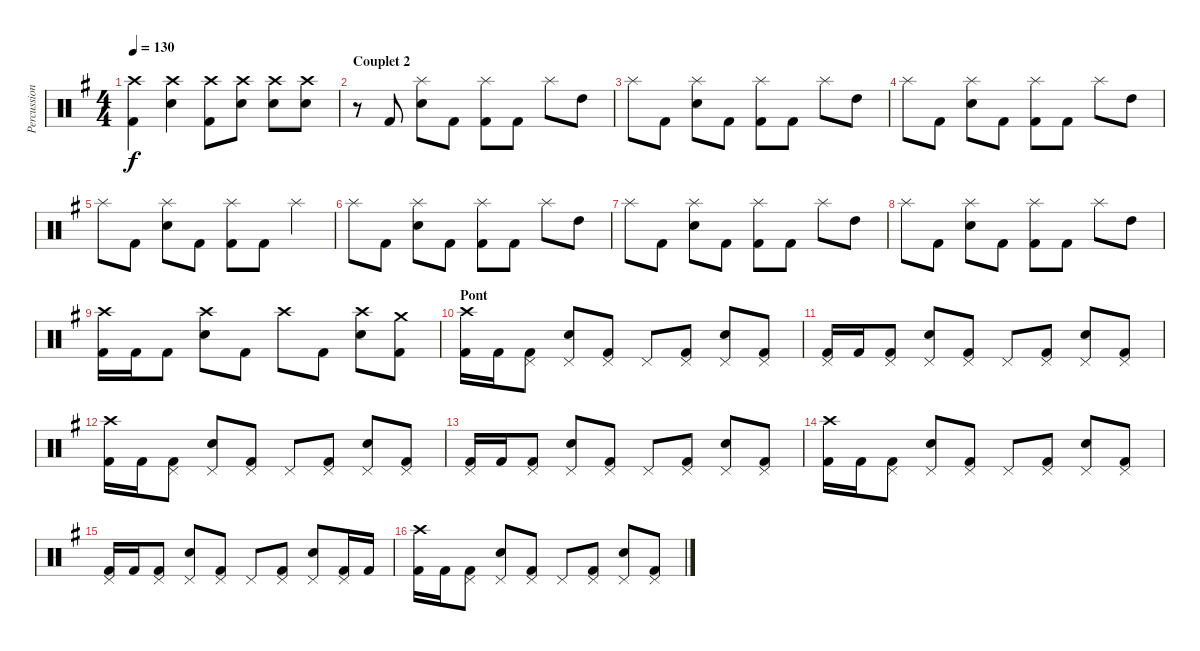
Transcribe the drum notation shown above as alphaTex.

\track ("Percussions" "Percussion") {instrument percussion}
\staff {score}
\articulation defaults
\ts (4 4)
\tempo 130
\clef neutral
\ks eminor
("Crash high (hit)" "Kick (hit) 2").4{dy f} ("Crash high (hit)" "Electric Snare (hit)").4 ("Crash high (hit)" "Kick (hit) 2").8 ("Crash high (hit)" "Electric Snare (hit)").8 ("Crash high (hit)" "Electric Snare (hit)").8 ("Crash high (hit)" "Electric Snare (hit)").8 |
\section ("" "Couplet 2")
r.8 "Kick (hit) 2".8 ("Splash (hit)" "Electric Snare (hit)").8 "Kick (hit) 2".8 ("Splash (hit)" "Kick (hit) 2").8 "Kick (hit) 2".8 "Splash (hit)".8 "High Tom (hit)".8 |
"Splash (hit)".8 "Kick (hit) 2".8 ("Splash (hit)" "Electric Snare (hit)").8 "Kick (hit) 2".8 ("Splash (hit)" "Kick (hit) 2").8 "Kick (hit) 2".8 "Splash (hit)".8 "High Tom (hit)".8 |
"Splash (hit)".8 "Kick (hit) 2".8 ("Splash (hit)" "Electric Snare (hit)").8 "Kick (hit) 2".8 ("Splash (hit)" "Kick (hit) 2").8 "Kick (hit) 2".8 "Splash (hit)".8 "High Tom (hit)".8 |
"Splash (hit)".8 "Kick (hit) 2".8 ("Splash (hit)" "Electric Snare (hit)").8 "Kick (hit) 2".8 ("Splash (hit)" "Kick (hit) 2").8 "Kick (hit) 2".8 "Splash (hit)".4 |
"Splash (hit)".8 "Kick (hit) 2".8 ("Splash (hit)" "Electric Snare (hit)").8 "Kick (hit) 2".8 ("Splash (hit)" "Kick (hit) 2").8 "Kick (hit) 2".8 "Splash (hit)".8 "High Tom (hit)".8 |
"Splash (hit)".8 "Kick (hit) 2".8 ("Splash (hit)" "Electric Snare (hit)").8 "Kick (hit) 2".8 ("Splash (hit)" "Kick (hit) 2").8 "Kick (hit) 2".8 "Splash (hit)".8 "High Tom (hit)".8 |
"Splash (hit)".8 "Kick (hit) 2".8 ("Splash (hit)" "Electric Snare (hit)").8 "Kick (hit) 2".8 ("Splash (hit)" "Kick (hit) 2").8 "Kick (hit) 2".8 "Splash (hit)".8 "High Tom (hit)".8 |
("Crash high (hit)" "Kick (hit) 2").16 "Kick (hit) 2".16 "Kick (hit) 2".8 ("Crash high (hit)" "Electric Snare (hit)").8 "Kick (hit) 2".8 "Crash high (hit)".8 "Kick (hit) 2".8 ("Crash high (hit)" "Electric Snare (hit)").8 ("Crash medium (hit)" "Kick (hit) 2").8 |
\section ("" "Pont")
("Crash high (hit)" "Kick (hit) 2").16 "Kick (hit) 2".16 ("Pedal Hi-Hat (hit)" "Kick (hit) 2").8 ("Pedal Hi-Hat (hit)" "Electric Snare (hit)").8 ("Pedal Hi-Hat (hit)" "Kick (hit) 2").8 "Pedal Hi-Hat (hit)".8 ("Pedal Hi-Hat (hit)" "Kick (hit) 2").8 ("Pedal Hi-Hat (hit)" "Electric Snare (hit)").8 ("Pedal Hi-Hat (hit)" "Kick (hit) 2").8 |
("Pedal Hi-Hat (hit)" "Kick (hit) 2").16 "Kick (hit) 2".16 ("Pedal Hi-Hat (hit)" "Kick (hit) 2").8 ("Pedal Hi-Hat (hit)" "Electric Snare (hit)").8 ("Pedal Hi-Hat (hit)" "Kick (hit) 2").8 "Pedal Hi-Hat (hit)".8 ("Pedal Hi-Hat (hit)" "Kick (hit) 2").8 ("Pedal Hi-Hat (hit)" "Electric Snare (hit)").8 ("Pedal Hi-Hat (hit)" "Kick (hit) 2").8 |
("Crash high (hit)" "Kick (hit) 2").16 "Kick (hit) 2".16 ("Pedal Hi-Hat (hit)" "Kick (hit) 2").8 ("Pedal Hi-Hat (hit)" "Electric Snare (hit)").8 ("Pedal Hi-Hat (hit)" "Kick (hit) 2").8 "Pedal Hi-Hat (hit)".8 ("Pedal Hi-Hat (hit)" "Kick (hit) 2").8 ("Pedal Hi-Hat (hit)" "Electric Snare (hit)").8 ("Pedal Hi-Hat (hit)" "Kick (hit) 2").8 |
("Pedal Hi-Hat (hit)" "Kick (hit) 2").16 "Kick (hit) 2".16 ("Pedal Hi-Hat (hit)" "Kick (hit) 2").8 ("Pedal Hi-Hat (hit)" "Electric Snare (hit)").8 ("Pedal Hi-Hat (hit)" "Kick (hit) 2").8 "Pedal Hi-Hat (hit)".8 ("Pedal Hi-Hat (hit)" "Kick (hit) 2").8 ("Pedal Hi-Hat (hit)" "Electric Snare (hit)").8 ("Pedal Hi-Hat (hit)" "Kick (hit) 2").8 |
("Crash high (hit)" "Kick (hit) 2").16 "Kick (hit) 2".16 ("Pedal Hi-Hat (hit)" "Kick (hit) 2").8 ("Pedal Hi-Hat (hit)" "Electric Snare (hit)").8 ("Pedal Hi-Hat (hit)" "Kick (hit) 2").8 "Pedal Hi-Hat (hit)".8 ("Pedal Hi-Hat (hit)" "Kick (hit) 2").8 ("Pedal Hi-Hat (hit)" "Electric Snare (hit)").8 ("Pedal Hi-Hat (hit)" "Kick (hit) 2").8 |
("Pedal Hi-Hat (hit)" "Kick (hit) 2").16 "Kick (hit) 2".16 ("Pedal Hi-Hat (hit)" "Kick (hit) 2").8 ("Pedal Hi-Hat (hit)" "Electric Snare (hit)").8 ("Pedal Hi-Hat (hit)" "Kick (hit) 2").8 "Pedal Hi-Hat (hit)".8 ("Pedal Hi-Hat (hit)" "Kick (hit) 2").8 ("Pedal Hi-Hat (hit)" "Electric Snare (hit)").8 ("Pedal Hi-Hat (hit)" "Kick (hit) 2").16 "Kick (hit) 2".16 |
("Crash high (hit)" "Kick (hit) 2").16 "Kick (hit) 2".16 ("Pedal Hi-Hat (hit)" "Kick (hit) 2").8 ("Pedal Hi-Hat (hit)" "Electric Snare (hit)").8 ("Pedal Hi-Hat (hit)" "Kick (hit) 2").8 "Pedal Hi-Hat (hit)".8 ("Pedal Hi-Hat (hit)" "Kick (hit) 2").8 ("Pedal Hi-Hat (hit)" "Electric Snare (hit)").8 ("Pedal Hi-Hat (hit)" "Kick (hit) 2").8
